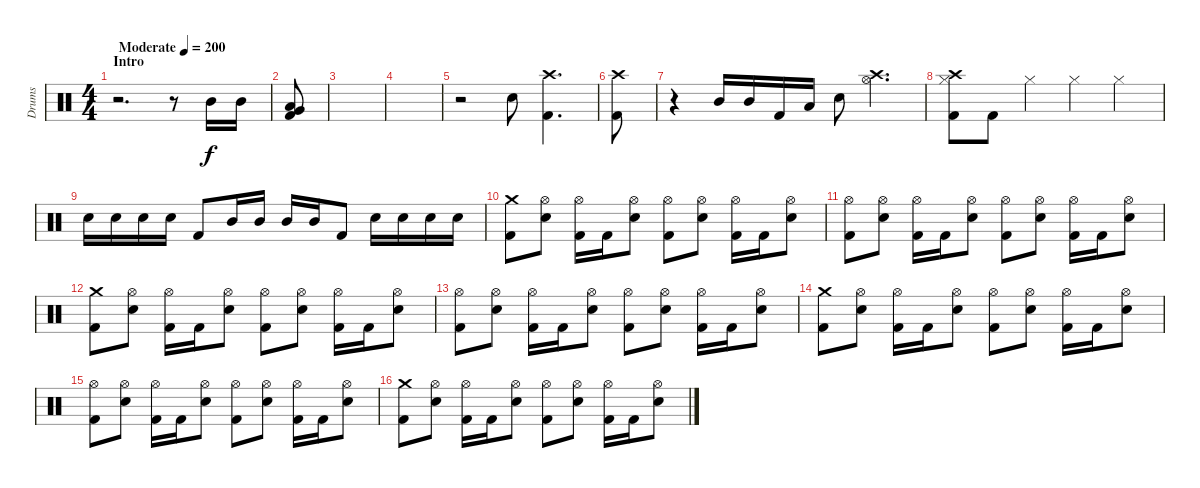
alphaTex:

\track ("Drums" "Drums") {instrument percussion}
\staff {score}
\articulation defaults
\ts (4 4)
\section ("" "Intro")
\tempo (200 "Moderate")
\clef neutral
\ks c
r.2{d dy f} r.8 "Mid Tom (hit)".16 "Mid Tom (hit)".16 |
("Low Tom (hit)" "Very Low Tom (hit)" "Kick (hit) 2").8 |
|
|
r.2 "Electric Snare (hit)".8 ("Crash high (hit)" "Kick (hit) 2").4{d} |
("Crash high (hit)" "Kick (hit) 2").8 |
r.4 "Mid Tom (hit)".16 "Mid Tom (hit)".16 "Kick (hit) 2".16 "Low Tom (hit)".16 "Electric Snare (hit)".8 ("Crash high (hit)" "Hi-Hat (open)").4{d} |
("Hi-Hat (closed)" "Crash high (hit)" "Kick (hit) 2").8 "Kick (hit) 2".8 "Hi-Hat (closed)".4 "Hi-Hat (closed)".4 "Hi-Hat (closed)".4 |
"Electric Snare (hit)".16 "Electric Snare (hit)".16 "Electric Snare (hit)".16 "Electric Snare (hit)".16 "Kick (hit) 2".8 "Mid Tom (hit)".16 "Mid Tom (hit)".16 "Mid Tom (hit)".16 "Mid Tom (hit)".16 "Kick (hit) 2".8 "Electric Snare (hit)".16 "Electric Snare (hit)".16 "Electric Snare (hit)".16 "Electric Snare (hit)".16 |
("Crash medium (hit)" "Kick (hit) 2").8 ("Hi-Hat (open)" "Electric Snare (hit)").8 ("Hi-Hat (open)" "Kick (hit) 2").16 "Kick (hit) 2".16 ("Hi-Hat (open)" "Electric Snare (hit)").8 ("Hi-Hat (open)" "Kick (hit) 2").8 ("Hi-Hat (open)" "Electric Snare (hit)").8 ("Hi-Hat (open)" "Kick (hit) 2").16 "Kick (hit) 2".16 ("Hi-Hat (open)" "Electric Snare (hit)").8 |
("Hi-Hat (open)" "Kick (hit) 2").8 ("Hi-Hat (open)" "Electric Snare (hit)").8 ("Hi-Hat (open)" "Kick (hit) 2").16 "Kick (hit) 2".16 ("Hi-Hat (open)" "Electric Snare (hit)").8 ("Hi-Hat (open)" "Kick (hit) 2").8 ("Hi-Hat (open)" "Electric Snare (hit)").8 ("Hi-Hat (open)" "Kick (hit) 2").16 "Kick (hit) 2".16 ("Hi-Hat (open)" "Electric Snare (hit)").8 |
("Crash medium (hit)" "Kick (hit) 2").8 ("Hi-Hat (open)" "Electric Snare (hit)").8 ("Hi-Hat (open)" "Kick (hit) 2").16 "Kick (hit) 2".16 ("Hi-Hat (open)" "Electric Snare (hit)").8 ("Hi-Hat (open)" "Kick (hit) 2").8 ("Hi-Hat (open)" "Electric Snare (hit)").8 ("Hi-Hat (open)" "Kick (hit) 2").16 "Kick (hit) 2".16 ("Hi-Hat (open)" "Electric Snare (hit)").8 |
("Hi-Hat (open)" "Kick (hit) 2").8 ("Hi-Hat (open)" "Electric Snare (hit)").8 ("Hi-Hat (open)" "Kick (hit) 2").16 "Kick (hit) 2".16 ("Hi-Hat (open)" "Electric Snare (hit)").8 ("Hi-Hat (open)" "Kick (hit) 2").8 ("Hi-Hat (open)" "Electric Snare (hit)").8 ("Hi-Hat (open)" "Kick (hit) 2").16 "Kick (hit) 2".16 ("Hi-Hat (open)" "Electric Snare (hit)").8 |
("Crash medium (hit)" "Kick (hit) 2").8 ("Hi-Hat (open)" "Electric Snare (hit)").8 ("Hi-Hat (open)" "Kick (hit) 2").16 "Kick (hit) 2".16 ("Hi-Hat (open)" "Electric Snare (hit)").8 ("Hi-Hat (open)" "Kick (hit) 2").8 ("Hi-Hat (open)" "Electric Snare (hit)").8 ("Hi-Hat (open)" "Kick (hit) 2").16 "Kick (hit) 2".16 ("Hi-Hat (open)" "Electric Snare (hit)").8 |
("Hi-Hat (open)" "Kick (hit) 2").8 ("Hi-Hat (open)" "Electric Snare (hit)").8 ("Hi-Hat (open)" "Kick (hit) 2").16 "Kick (hit) 2".16 ("Hi-Hat (open)" "Electric Snare (hit)").8 ("Hi-Hat (open)" "Kick (hit) 2").8 ("Hi-Hat (open)" "Electric Snare (hit)").8 ("Hi-Hat (open)" "Kick (hit) 2").16 "Kick (hit) 2".16 ("Hi-Hat (open)" "Electric Snare (hit)").8 |
("Crash medium (hit)" "Kick (hit) 2").8 ("Hi-Hat (open)" "Electric Snare (hit)").8 ("Hi-Hat (open)" "Kick (hit) 2").16 "Kick (hit) 2".16 ("Hi-Hat (open)" "Electric Snare (hit)").8 ("Hi-Hat (open)" "Kick (hit) 2").8 ("Hi-Hat (open)" "Electric Snare (hit)").8 ("Hi-Hat (open)" "Kick (hit) 2").16 "Kick (hit) 2".16 ("Hi-Hat (open)" "Electric Snare (hit)").8
